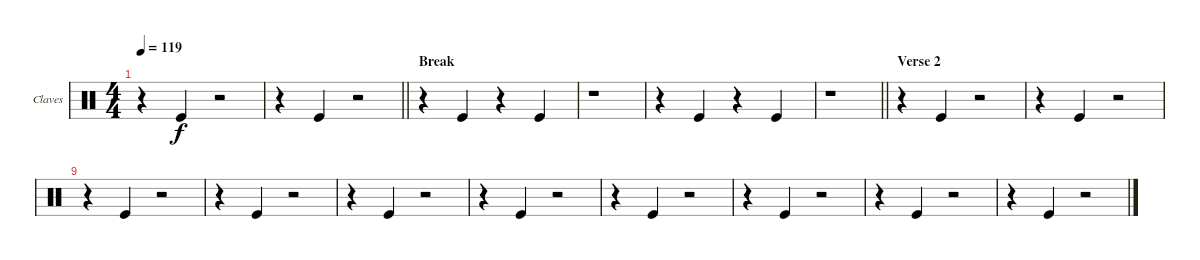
\defaultSystemsLayout 4
\bracketExtendMode groupsimilarinstruments
\useSystemSignSeparator
\multiBarRest
\multiTrackTrackNamePolicy allsystems
\firstSystemTrackNameMode fullname
\firstSystemTrackNameOrientation horizontal
\otherSystemsTrackNameOrientation horizontal
\defaultBarNumberDisplay FirstOfSystem
\track ("Claves" "Claves") {multiBarRest instrument percussion}
\staff {score}
\articulation defaults
\ts (4 4)
\tempo 119
\clef neutral
\ks aminor
r.4{dy f} "Kick (hit)".4 r.2 |
\barLineRight lightlight
r.4 "Kick (hit)".4 r.2 |
\section ("" "Break")
r.4 "Kick (hit)".4 r.4 "Kick (hit)".4 |
r.1 |
r.4 "Kick (hit)".4 r.4 "Kick (hit)".4 |
\barLineRight lightlight
r.1 |
\section ("" "Verse 2")
r.4 "Kick (hit)".4 r.2 |
r.4 "Kick (hit)".4 r.2 |
r.4 "Kick (hit)".4 r.2 |
r.4 "Kick (hit)".4 r.2 |
r.4 "Kick (hit)".4 r.2 |
r.4 "Kick (hit)".4 r.2 |
r.4 "Kick (hit)".4 r.2 |
r.4 "Kick (hit)".4 r.2 |
r.4 "Kick (hit)".4 r.2 |
r.4 "Kick (hit)".4 r.2
